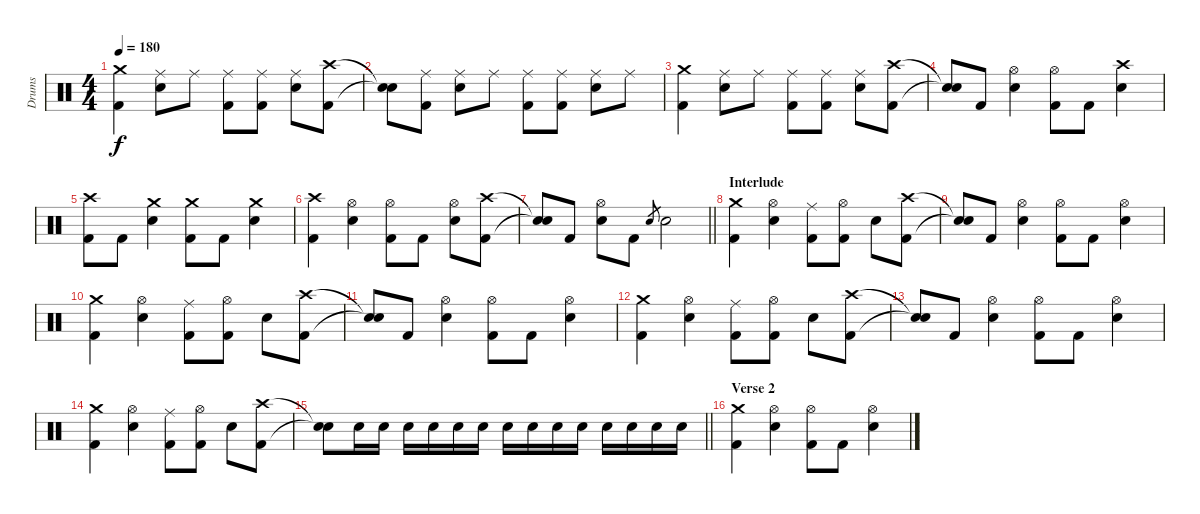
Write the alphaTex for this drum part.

\track ("Drums" "Drums") {instrument percussion}
\staff {score}
\articulation defaults
\ts (4 4)
\tempo 180
\clef neutral
\ks c
("Crash medium (hit)" "Kick (hit) 2").4{dy f} ("Ride (middle)" "Electric Snare (hit)").8 "Ride (middle)".8 ("Ride (middle)" "Kick (hit) 2").8 ("Ride (middle)" "Kick (hit) 2").8 ("Ride (middle)" "Electric Snare (hit)").8 ("Crash high (hit)" "Kick (hit) 2").8 |
("Snare (hit)"{t} "Snare (hit)"{t}).8 ("Ride (middle)" "Kick (hit) 2").8 ("Ride (middle)" "Electric Snare (hit)").8 "Ride (middle)".8 ("Ride (middle)" "Kick (hit) 2").8 ("Ride (middle)" "Kick (hit) 2").8 ("Ride (middle)" "Electric Snare (hit)").8 "Ride (middle)".8 |
("Crash medium (hit)" "Kick (hit) 2").4 ("Ride (middle)" "Electric Snare (hit)").8 "Ride (middle)".8 ("Ride (middle)" "Kick (hit) 2").8 ("Ride (middle)" "Kick (hit) 2").8 ("Ride (middle)" "Electric Snare (hit)").8 ("Crash high (hit)" "Kick (hit) 2").8 |
("Snare (hit)"{t} "Snare (hit)"{t}).8 "Kick (hit) 2".8 ("Hi-Hat (open)" "Electric Snare (hit)").4 ("Hi-Hat (open)" "Kick (hit) 2").8 "Kick (hit) 2".8 ("Crash high (hit)" "Electric Snare (hit)").4 |
("Crash high (hit)" "Kick (hit) 2").8 "Kick (hit) 2".8 ("Crash medium (hit)" "Electric Snare (hit)").4 ("Crash medium (hit)" "Kick (hit) 2").8 "Kick (hit) 2".8 ("Crash medium (hit)" "Electric Snare (hit)").4 |
("Crash high (hit)" "Kick (hit) 2").4 ("Hi-Hat (open)" "Electric Snare (hit)").4 ("Hi-Hat (open)" "Kick (hit) 2").8 "Kick (hit) 2".8 ("Hi-Hat (open)" "Electric Snare (hit)").8 ("Crash high (hit)" "Kick (hit) 2").8 |
\barLineRight lightlight
("Snare (hit)"{t} "Snare (hit)"{t}).8 "Kick (hit) 2".8 ("Hi-Hat (open)" "Electric Snare (hit)").8 "Kick (hit) 2".8 "Electric Snare (hit)".8{gr} "Electric Snare (hit)".2 |
\section ("" "Interlude")
("Crash medium (hit)" "Kick (hit) 2").4 ("Hi-Hat (open)" "Electric Snare (hit)").4 ("Ride (middle)" "Kick (hit) 2").8 ("Hi-Hat (open)" "Kick (hit) 2").8 "Electric Snare (hit)".8 ("Crash high (hit)" "Kick (hit) 2").8 |
("Snare (hit)"{t} "Snare (hit)"{t}).8 "Kick (hit) 2".8 ("Hi-Hat (open)" "Electric Snare (hit)").4 ("Hi-Hat (open)" "Kick (hit) 2").8 "Kick (hit) 2".8 ("Hi-Hat (open)" "Electric Snare (hit)").4 |
("Crash medium (hit)" "Kick (hit) 2").4 ("Hi-Hat (open)" "Electric Snare (hit)").4 ("Ride (middle)" "Kick (hit) 2").8 ("Hi-Hat (open)" "Kick (hit) 2").8 "Electric Snare (hit)".8 ("Crash high (hit)" "Kick (hit) 2").8 |
("Snare (hit)"{t} "Snare (hit)"{t}).8 "Kick (hit) 2".8 ("Hi-Hat (open)" "Electric Snare (hit)").4 ("Hi-Hat (open)" "Kick (hit) 2").8 "Kick (hit) 2".8 ("Hi-Hat (open)" "Electric Snare (hit)").4 |
("Crash medium (hit)" "Kick (hit) 2").4 ("Hi-Hat (open)" "Electric Snare (hit)").4 ("Ride (middle)" "Kick (hit) 2").8 ("Hi-Hat (open)" "Kick (hit) 2").8 "Electric Snare (hit)".8 ("Crash high (hit)" "Kick (hit) 2").8 |
("Snare (hit)"{t} "Snare (hit)"{t}).8 "Kick (hit) 2".8 ("Hi-Hat (open)" "Electric Snare (hit)").4 ("Hi-Hat (open)" "Kick (hit) 2").8 "Kick (hit) 2".8 ("Hi-Hat (open)" "Electric Snare (hit)").4 |
("Crash medium (hit)" "Kick (hit) 2").4 ("Hi-Hat (open)" "Electric Snare (hit)").4 ("Ride (middle)" "Kick (hit) 2").8 ("Hi-Hat (open)" "Kick (hit) 2").8 "Electric Snare (hit)".8 ("Crash high (hit)" "Kick (hit) 2").8 |
\barLineRight lightlight
("Snare (hit)"{t} "Snare (hit)"{t}).8 "Electric Snare (hit)".16 "Electric Snare (hit)".16 "Electric Snare (hit)".16 "Electric Snare (hit)".16 "Electric Snare (hit)".16 "Electric Snare (hit)".16 "Electric Snare (hit)".16 "Electric Snare (hit)".16 "Electric Snare (hit)".16 "Electric Snare (hit)".16 "Electric Snare (hit)".16 "Electric Snare (hit)".16 "Electric Snare (hit)".16 "Electric Snare (hit)".16 |
\section ("" "Verse 2")
("Crash medium (hit)" "Kick (hit) 2").4 ("Hi-Hat (open)" "Electric Snare (hit)").4 ("Hi-Hat (open)" "Kick (hit) 2").8 "Kick (hit) 2".8 ("Hi-Hat (open)" "Electric Snare (hit)").4
